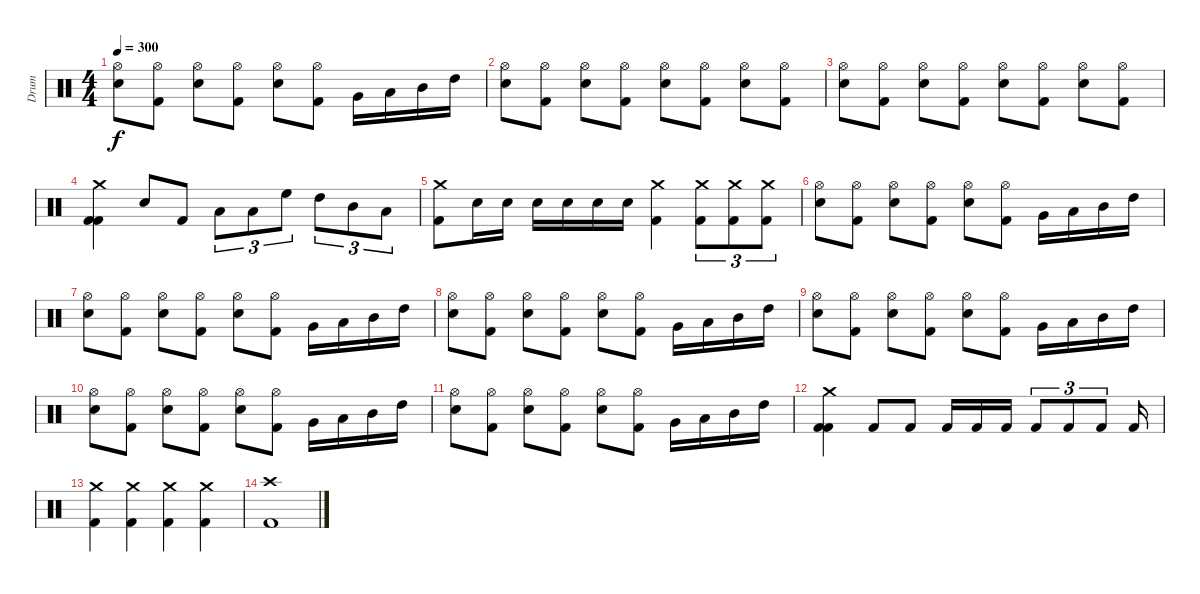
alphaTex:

\track ("Drum" "Drum") {instrument percussion}
\staff {score}
\articulation defaults
\ts (4 4)
\tempo 300
\clef neutral
\ks c
("Hi-Hat (open)" "Snare (hit) 2").8{dy f} ("Hi-Hat (open)" "Kick (hit) 2").8 ("Hi-Hat (open)" "Snare (hit) 2").8 ("Hi-Hat (open)" "Kick (hit) 2").8 ("Hi-Hat (open)" "Snare (hit) 2").8 ("Hi-Hat (open)" "Kick (hit) 2").8 "Very Low Tom (hit)".16 "Low Tom (hit)".16 "Mid Tom (hit)".16 "High Tom (hit)".16 |
("Hi-Hat (open)" "Snare (hit) 2").8 ("Hi-Hat (open)" "Kick (hit) 2").8 ("Hi-Hat (open)" "Snare (hit) 2").8 ("Hi-Hat (open)" "Kick (hit) 2").8 ("Hi-Hat (open)" "Snare (hit) 2").8 ("Hi-Hat (open)" "Kick (hit) 2").8 ("Hi-Hat (open)" "Snare (hit) 2").8 ("Hi-Hat (open)" "Kick (hit) 2").8 |
("Hi-Hat (open)" "Snare (hit) 2").8 ("Hi-Hat (open)" "Kick (hit) 2").8 ("Hi-Hat (open)" "Snare (hit) 2").8 ("Hi-Hat (open)" "Kick (hit) 2").8 ("Hi-Hat (open)" "Snare (hit) 2").8 ("Hi-Hat (open)" "Kick (hit) 2").8 ("Hi-Hat (open)" "Snare (hit) 2").8 ("Hi-Hat (open)" "Kick (hit) 2").8 |
("Crash medium (hit)" "Kick (hit) 2" "Kick (hit) 2").4 "Snare (hit) 2".8 "Kick (hit) 2".8 "Low Floor Tom (hit)".8{tu (3 2)} "Low Floor Tom (hit)".8{tu (3 2)} "High Floor Tom (hit)".8{tu (3 2)} "High Tom (hit)".8{tu (3 2)} "Mid Tom (hit)".8{tu (3 2)} "Low Tom (hit)".8{tu (3 2)} |
("Crash medium (hit)" "Kick (hit) 2").8 "Snare (hit) 2".16 "Snare (hit) 2".16 "Snare (hit) 2".16 "Snare (hit) 2".16 "Snare (hit) 2".16 "Snare (hit) 2".16 ("Crash medium (hit)" "Kick (hit) 2").4 ("Crash medium (hit)" "Kick (hit) 2").8{tu (3 2)} ("Crash medium (hit)" "Kick (hit) 2").8{tu (3 2)} ("Crash medium (hit)" "Kick (hit) 2").8{tu (3 2)} |
("Hi-Hat (open)" "Snare (hit) 2").8 ("Hi-Hat (open)" "Kick (hit) 2").8 ("Hi-Hat (open)" "Snare (hit) 2").8 ("Hi-Hat (open)" "Kick (hit) 2").8 ("Hi-Hat (open)" "Snare (hit) 2").8 ("Hi-Hat (open)" "Kick (hit) 2").8 "Very Low Tom (hit)".16 "Low Tom (hit)".16 "Mid Tom (hit)".16 "High Tom (hit)".16 |
("Hi-Hat (open)" "Snare (hit) 2").8 ("Hi-Hat (open)" "Kick (hit) 2").8 ("Hi-Hat (open)" "Snare (hit) 2").8 ("Hi-Hat (open)" "Kick (hit) 2").8 ("Hi-Hat (open)" "Snare (hit) 2").8 ("Hi-Hat (open)" "Kick (hit) 2").8 "Very Low Tom (hit)".16 "Low Tom (hit)".16 "Mid Tom (hit)".16 "High Tom (hit)".16 |
("Hi-Hat (open)" "Snare (hit) 2").8 ("Hi-Hat (open)" "Kick (hit) 2").8 ("Hi-Hat (open)" "Snare (hit) 2").8 ("Hi-Hat (open)" "Kick (hit) 2").8 ("Hi-Hat (open)" "Snare (hit) 2").8 ("Hi-Hat (open)" "Kick (hit) 2").8 "Very Low Tom (hit)".16 "Low Tom (hit)".16 "Mid Tom (hit)".16 "High Tom (hit)".16 |
("Hi-Hat (open)" "Snare (hit) 2").8 ("Hi-Hat (open)" "Kick (hit) 2").8 ("Hi-Hat (open)" "Snare (hit) 2").8 ("Hi-Hat (open)" "Kick (hit) 2").8 ("Hi-Hat (open)" "Snare (hit) 2").8 ("Hi-Hat (open)" "Kick (hit) 2").8 "Very Low Tom (hit)".16 "Low Tom (hit)".16 "Mid Tom (hit)".16 "High Tom (hit)".16 |
("Hi-Hat (open)" "Snare (hit) 2").8 ("Hi-Hat (open)" "Kick (hit) 2").8 ("Hi-Hat (open)" "Snare (hit) 2").8 ("Hi-Hat (open)" "Kick (hit) 2").8 ("Hi-Hat (open)" "Snare (hit) 2").8 ("Hi-Hat (open)" "Kick (hit) 2").8 "Very Low Tom (hit)".16 "Low Tom (hit)".16 "Mid Tom (hit)".16 "High Tom (hit)".16 |
("Hi-Hat (open)" "Snare (hit) 2").8 ("Hi-Hat (open)" "Kick (hit) 2").8 ("Hi-Hat (open)" "Snare (hit) 2").8 ("Hi-Hat (open)" "Kick (hit) 2").8 ("Hi-Hat (open)" "Snare (hit) 2").8 ("Hi-Hat (open)" "Kick (hit) 2").8 "Very Low Tom (hit)".16 "Low Tom (hit)".16 "Mid Tom (hit)".16 "High Tom (hit)".16 |
("Crash medium (hit)" "Kick (hit) 2" "Kick (hit) 2").4 "Kick (hit) 2".8 "Kick (hit) 2".8 "Kick (hit) 2".16 "Kick (hit) 2".16 "Kick (hit) 2".16 "Kick (hit) 2".8{tu (3 2)} "Kick (hit) 2".8{tu (3 2)} "Kick (hit) 2".8{tu (3 2)} "Kick (hit) 2".16 |
("Crash medium (hit)" "Kick (hit) 2").4 ("Crash medium (hit)" "Kick (hit) 2").4 ("Crash medium (hit)" "Kick (hit) 2").4 ("Crash medium (hit)" "Kick (hit) 2").4 |
("Crash high (hit)" "Kick (hit) 2").1
